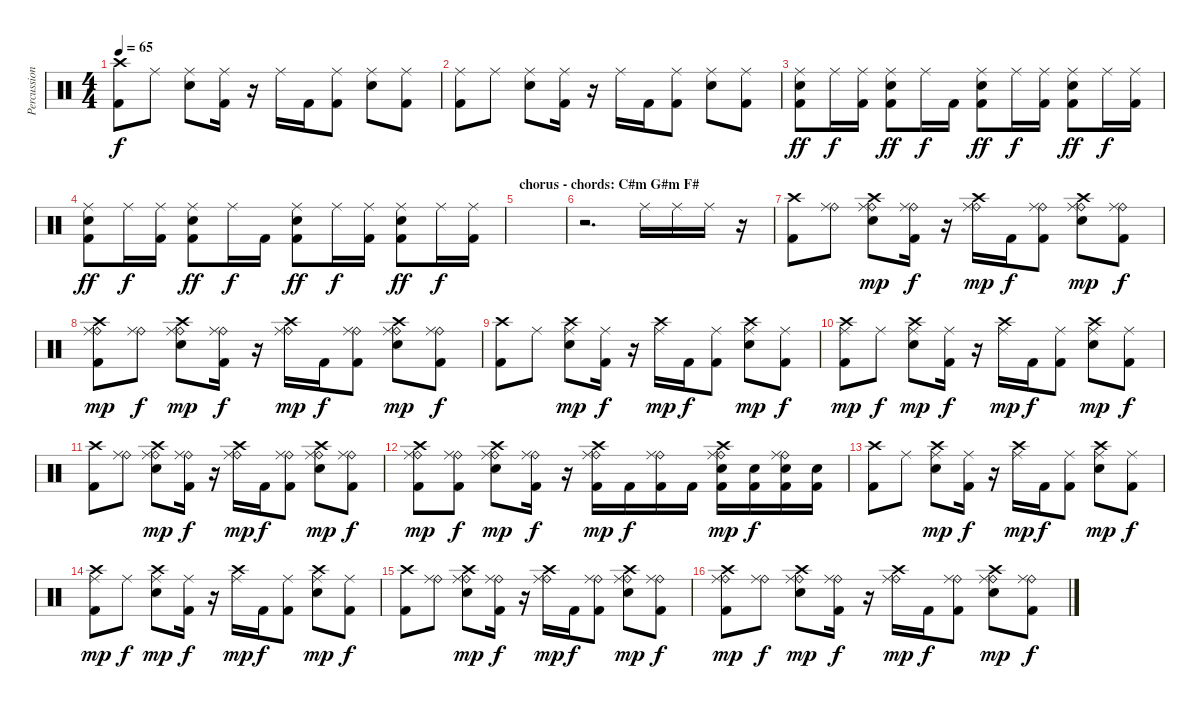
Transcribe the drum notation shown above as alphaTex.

\track ("Percussion" "Percussion") {instrument percussion}
\staff {score}
\articulation defaults
\ts (4 4)
\tempo 65
\clef neutral
\ks c
("Crash high (hit)" "Kick (hit) 2").8{dy f} "Ride (middle)".8 ("Ride (middle)" "Electric Snare (hit)").8 ("Ride (middle)" "Kick (hit) 2").16 r.16 "Ride (middle)".16 "Kick (hit) 2".16 ("Ride (middle)" "Kick (hit) 2").8 ("Ride (middle)" "Electric Snare (hit)").8 ("Ride (middle)" "Kick (hit) 2").8 |
("Ride (middle)" "Kick (hit) 2").8 "Ride (middle)".8 ("Ride (middle)" "Electric Snare (hit)").8 ("Ride (middle)" "Kick (hit) 2").16 r.16 "Ride (middle)".16 "Kick (hit) 2".16 ("Ride (middle)" "Kick (hit) 2").8 ("Ride (middle)" "Electric Snare (hit)").8 ("Ride (middle)" "Kick (hit) 2").8 |
("Ride (middle)" "Electric Snare (hit)" "Kick (hit) 2").8{dy ff} "Ride (middle)".16{dy f} ("Ride (middle)" "Kick (hit) 2").16 ("Ride (middle)" "Electric Snare (hit)" "Kick (hit) 2").8{dy ff} "Ride (middle)".16{dy f} "Kick (hit) 2".16 ("Ride (middle)" "Electric Snare (hit)" "Kick (hit) 2").8{dy ff} "Ride (middle)".16{dy f} ("Ride (middle)" "Kick (hit) 2").16 ("Ride (middle)" "Electric Snare (hit)" "Kick (hit) 2").8{dy ff} "Ride (middle)".16{dy f} ("Ride (middle)" "Kick (hit) 2").16 |
("Ride (middle)" "Electric Snare (hit)" "Kick (hit) 2").8{dy ff} "Ride (middle)".16{dy f} ("Ride (middle)" "Kick (hit) 2").16 ("Ride (middle)" "Electric Snare (hit)" "Kick (hit) 2").8{dy ff} "Ride (middle)".16{dy f} "Kick (hit) 2".16 ("Ride (middle)" "Electric Snare (hit)" "Kick (hit) 2").8{dy ff} "Ride (middle)".16{dy f} ("Ride (middle)" "Kick (hit) 2").16 ("Ride (middle)" "Electric Snare (hit)" "Kick (hit) 2").8{dy ff} "Ride (middle)".16{dy f} ("Ride (middle)" "Kick (hit) 2").16 |
\section ("" "chorus - chords: C#m G#m F#")
|
r.2{d} "Ride (middle)".16 "Ride (middle)".16 "Ride (middle)".16 r.16 |
("Crash high (hit)" "Kick (hit) 2").8{volume 13} ("Ride (bell)" "Ride (middle)").8 ("Ride (bell)" "Ride (middle)" "Crash high (hit)" "Electric Snare (hit)").8{dy mp} ("Ride (bell)" "Ride (middle)" "Kick (hit) 2").16{dy f} r.16 ("Ride (bell)" "Ride (middle)" "Crash high (hit)").16{dy mp} "Kick (hit) 2".16{dy f} ("Ride (bell)" "Ride (middle)" "Kick (hit) 2").8 ("Ride (bell)" "Ride (middle)" "Crash high (hit)" "Electric Snare (hit)").8{dy mp} ("Ride (bell)" "Ride (middle)" "Kick (hit) 2").8{dy f} |
("Ride (bell)" "Ride (middle)" "Crash high (hit)" "Kick (hit) 2").8{dy mp} ("Ride (bell)" "Ride (middle)").8{dy f} ("Ride (bell)" "Ride (middle)" "Crash high (hit)" "Electric Snare (hit)").8{dy mp} ("Ride (bell)" "Ride (middle)" "Kick (hit) 2").16{dy f} r.16 ("Ride (bell)" "Ride (middle)" "Crash high (hit)").16{dy mp} "Kick (hit) 2".16{dy f} ("Ride (bell)" "Ride (middle)" "Kick (hit) 2").8 ("Ride (bell)" "Ride (middle)" "Crash high (hit)" "Electric Snare (hit)").8{dy mp} ("Ride (bell)" "Ride (middle)" "Kick (hit) 2").8{dy f} |
("Crash high (hit)" "Kick (hit) 2").8 "Ride (middle)".8 ("Crash high (hit)" "Ride (middle)" "Electric Snare (hit)").8{dy mp} ("Ride (middle)" "Kick (hit) 2").16{dy f} r.16 ("Crash high (hit)" "Ride (middle)").16{dy mp} "Kick (hit) 2".16{dy f} ("Ride (middle)" "Kick (hit) 2").8 ("Crash high (hit)" "Ride (middle)" "Electric Snare (hit)").8{dy mp} ("Ride (middle)" "Kick (hit) 2").8{dy f} |
("Crash high (hit)" "Ride (middle)" "Kick (hit) 2").8{dy mp} "Ride (middle)".8{dy f} ("Crash high (hit)" "Ride (middle)" "Electric Snare (hit)").8{dy mp} ("Ride (middle)" "Kick (hit) 2").16{dy f} r.16 ("Crash high (hit)" "Ride (middle)").16{dy mp} "Kick (hit) 2".16{dy f} ("Ride (middle)" "Kick (hit) 2").8 ("Crash high (hit)" "Ride (middle)" "Electric Snare (hit)").8{dy mp} ("Ride (middle)" "Kick (hit) 2").8{dy f} |
("Crash high (hit)" "Kick (hit) 2").8 ("Ride (bell)" "Ride (middle)").8 ("Ride (bell)" "Ride (middle)" "Crash high (hit)" "Electric Snare (hit)").8{dy mp} ("Ride (bell)" "Ride (middle)" "Kick (hit) 2").16{dy f} r.16 ("Ride (bell)" "Ride (middle)" "Crash high (hit)").16{dy mp} "Kick (hit) 2".16{dy f} ("Ride (bell)" "Ride (middle)" "Kick (hit) 2").8 ("Ride (bell)" "Ride (middle)" "Crash high (hit)" "Electric Snare (hit)").8{dy mp} ("Ride (bell)" "Ride (middle)" "Kick (hit) 2").8{dy f} |
("Ride (bell)" "Ride (middle)" "Crash high (hit)" "Kick (hit) 2").8{dy mp} ("Ride (bell)" "Ride (middle)" "Kick (hit) 2").8{dy f} ("Ride (bell)" "Ride (middle)" "Crash high (hit)" "Electric Snare (hit)").8{dy mp} ("Ride (bell)" "Ride (middle)" "Kick (hit) 2").16{dy f} r.16 ("Ride (bell)" "Ride (middle)" "Crash high (hit)" "Kick (hit) 2").16{dy mp} "Kick (hit) 2".16{dy f} ("Ride (bell)" "Ride (middle)" "Kick (hit) 2").16 "Kick (hit) 2".16 ("Ride (bell)" "Ride (middle)" "Crash high (hit)" "Electric Snare (hit)" "Kick (hit) 2").16{dy mp} ("Electric Snare (hit)" "Kick (hit) 2").16{dy f} ("Ride (bell)" "Ride (middle)" "Electric Snare (hit)" "Kick (hit) 2").16 ("Electric Snare (hit)" "Kick (hit) 2").16 |
("Crash high (hit)" "Kick (hit) 2").8 "Ride (middle)".8 ("Crash high (hit)" "Ride (middle)" "Electric Snare (hit)").8{dy mp} ("Ride (middle)" "Kick (hit) 2").16{dy f} r.16 ("Crash high (hit)" "Ride (middle)").16{dy mp} "Kick (hit) 2".16{dy f} ("Ride (middle)" "Kick (hit) 2").8 ("Crash high (hit)" "Ride (middle)" "Electric Snare (hit)").8{dy mp} ("Ride (middle)" "Kick (hit) 2").8{dy f} |
("Crash high (hit)" "Ride (middle)" "Kick (hit) 2").8{dy mp} "Ride (middle)".8{dy f} ("Crash high (hit)" "Ride (middle)" "Electric Snare (hit)").8{dy mp} ("Ride (middle)" "Kick (hit) 2").16{dy f} r.16 ("Crash high (hit)" "Ride (middle)").16{dy mp} "Kick (hit) 2".16{dy f} ("Ride (middle)" "Kick (hit) 2").8 ("Crash high (hit)" "Ride (middle)" "Electric Snare (hit)").8{dy mp} ("Ride (middle)" "Kick (hit) 2").8{dy f} |
("Crash high (hit)" "Kick (hit) 2").8 ("Ride (bell)" "Ride (middle)").8 ("Ride (bell)" "Ride (middle)" "Crash high (hit)" "Electric Snare (hit)").8{dy mp} ("Ride (bell)" "Ride (middle)" "Kick (hit) 2").16{dy f} r.16 ("Ride (bell)" "Ride (middle)" "Crash high (hit)").16{dy mp} "Kick (hit) 2".16{dy f} ("Ride (bell)" "Ride (middle)" "Kick (hit) 2").8 ("Ride (bell)" "Ride (middle)" "Crash high (hit)" "Electric Snare (hit)").8{dy mp} ("Ride (bell)" "Ride (middle)" "Kick (hit) 2").8{dy f} |
("Ride (bell)" "Ride (middle)" "Crash high (hit)" "Kick (hit) 2").8{dy mp} ("Ride (bell)" "Ride (middle)").8{dy f} ("Ride (bell)" "Ride (middle)" "Crash high (hit)" "Electric Snare (hit)").8{dy mp} ("Ride (bell)" "Ride (middle)" "Kick (hit) 2").16{dy f} r.16 ("Ride (bell)" "Ride (middle)" "Crash high (hit)").16{dy mp} "Kick (hit) 2".16{dy f} ("Ride (bell)" "Ride (middle)" "Kick (hit) 2").8 ("Ride (bell)" "Ride (middle)" "Crash high (hit)" "Electric Snare (hit)").8{dy mp} ("Ride (bell)" "Ride (middle)" "Kick (hit) 2").8{dy f}
